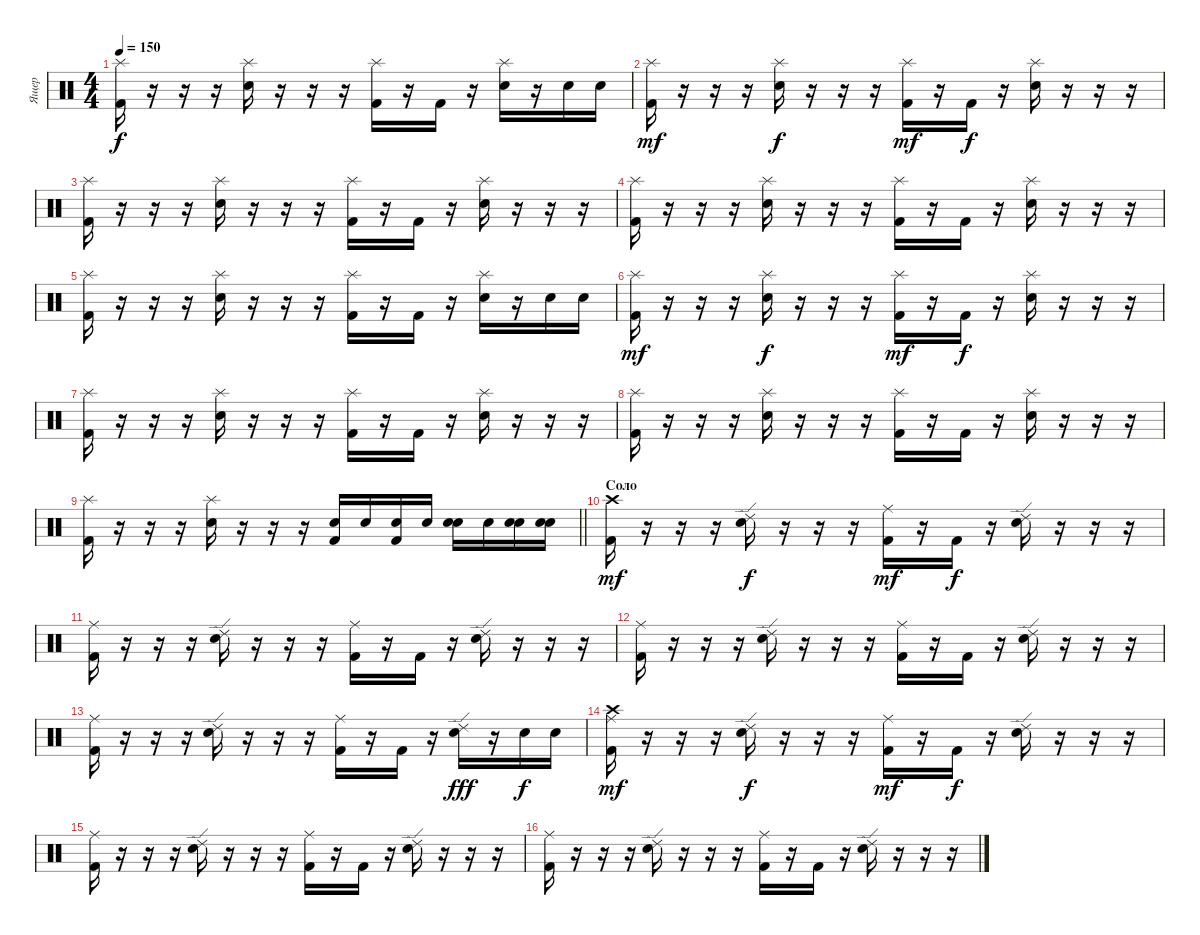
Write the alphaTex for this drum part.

\track ("Ящер" "Ящер") {instrument percussion}
\staff {score}
\articulation defaults
\ts (4 4)
\tempo 150
\clef neutral
\ks c
("Kick (hit) 2" "Splash (hit)").16{dy f} r.16 r.16 r.16 ("Snare (hit) 2" "Splash (hit)").16 r.16 r.16 r.16 ("Kick (hit) 2" "Splash (hit)").16 r.16 "Kick (hit) 2".16 r.16 ("Snare (hit) 2" "Splash (hit)").16 r.16 "Snare (hit) 2".16 "Snare (hit) 2".16 |
("Kick (hit) 2" "Splash (hit)").16{dy mf} r.16 r.16 r.16 ("Snare (hit) 2" "Splash (hit)").16{dy f} r.16 r.16 r.16 ("Kick (hit) 2" "Splash (hit)").16{dy mf} r.16 "Kick (hit) 2".16{dy f} r.16 ("Snare (hit) 2" "Splash (hit)").16 r.16 r.16 r.16 |
("Kick (hit) 2" "Splash (hit)").16 r.16 r.16 r.16 ("Snare (hit) 2" "Splash (hit)").16 r.16 r.16 r.16 ("Kick (hit) 2" "Splash (hit)").16 r.16 "Kick (hit) 2".16 r.16 ("Snare (hit) 2" "Splash (hit)").16 r.16 r.16 r.16 |
("Kick (hit) 2" "Splash (hit)").16 r.16 r.16 r.16 ("Snare (hit) 2" "Splash (hit)").16 r.16 r.16 r.16 ("Kick (hit) 2" "Splash (hit)").16 r.16 "Kick (hit) 2".16 r.16 ("Snare (hit) 2" "Splash (hit)").16 r.16 r.16 r.16 |
("Kick (hit) 2" "Splash (hit)").16 r.16 r.16 r.16 ("Snare (hit) 2" "Splash (hit)").16 r.16 r.16 r.16 ("Kick (hit) 2" "Splash (hit)").16 r.16 "Kick (hit) 2".16 r.16 ("Snare (hit) 2" "Splash (hit)").16 r.16 "Snare (hit) 2".16 "Snare (hit) 2".16 |
("Kick (hit) 2" "Splash (hit)").16{dy mf} r.16 r.16 r.16 ("Snare (hit) 2" "Splash (hit)").16{dy f} r.16 r.16 r.16 ("Kick (hit) 2" "Splash (hit)").16{dy mf} r.16 "Kick (hit) 2".16{dy f} r.16 ("Snare (hit) 2" "Splash (hit)").16 r.16 r.16 r.16 |
("Kick (hit) 2" "Splash (hit)").16 r.16 r.16 r.16 ("Snare (hit) 2" "Splash (hit)").16 r.16 r.16 r.16 ("Kick (hit) 2" "Splash (hit)").16 r.16 "Kick (hit) 2".16 r.16 ("Snare (hit) 2" "Splash (hit)").16 r.16 r.16 r.16 |
("Kick (hit) 2" "Splash (hit)").16 r.16 r.16 r.16 ("Snare (hit) 2" "Splash (hit)").16 r.16 r.16 r.16 ("Kick (hit) 2" "Splash (hit)").16 r.16 "Kick (hit) 2".16 r.16 ("Snare (hit) 2" "Splash (hit)").16 r.16 r.16 r.16 |
\barLineRight lightlight
("Kick (hit) 2" "Splash (hit)").16 r.16 r.16 r.16 ("Snare (hit) 2" "Splash (hit)").16 r.16 r.16 r.16 ("Kick (hit) 2" "Snare (hit) 2").16 "Snare (hit) 2".16 ("Kick (hit) 2" "Snare (hit) 2").16 "Snare (hit) 2".16 ("Snare (hit) 2" "Snare (hit) 2").16 "Snare (hit) 2".16 ("Snare (hit) 2" "Snare (hit) 2").16 ("Snare (hit) 2" "Snare (hit) 2").16 |
\section ("" "Соло")
("Kick (hit) 2" "Crash high (hit)").16{dy mf} r.16 r.16 r.16 ("Snare (hit) 2" "Ride (edge) 2").16{dy f} r.16 r.16 r.16 ("Kick (hit) 2" "Ride (middle)").16{dy mf} r.16 "Kick (hit) 2".16{dy f} r.16 ("Snare (hit) 2" "Ride (edge) 2").16 r.16 r.16 r.16 |
("Kick (hit) 2" "Ride (middle)").16 r.16 r.16 r.16 ("Snare (hit) 2" "Ride (edge) 2").16 r.16 r.16 r.16 ("Kick (hit) 2" "Ride (middle)").16 r.16 "Kick (hit) 2".16 r.16 ("Snare (hit) 2" "Ride (edge) 2").16 r.16 r.16 r.16 |
("Kick (hit) 2" "Ride (middle)").16 r.16 r.16 r.16 ("Snare (hit) 2" "Ride (edge) 2").16 r.16 r.16 r.16 ("Kick (hit) 2" "Ride (middle)").16 r.16 "Kick (hit) 2".16 r.16 ("Snare (hit) 2" "Ride (edge) 2").16 r.16 r.16 r.16 |
("Kick (hit) 2" "Ride (middle)").16 r.16 r.16 r.16 ("Snare (hit) 2" "Ride (edge) 2").16 r.16 r.16 r.16 ("Kick (hit) 2" "Ride (middle)").16 r.16 "Kick (hit) 2".16 r.16 ("Snare (hit) 2" "Ride (edge) 2").16{dy fff} r.16 "Snare (hit) 2".16{dy f} "Snare (hit) 2".16 |
("Kick (hit) 2" "Crash high (hit)" "Ride (middle)").16{dy mf} r.16 r.16 r.16 ("Snare (hit) 2" "Ride (edge) 2").16{dy f} r.16 r.16 r.16 ("Kick (hit) 2" "Ride (middle)").16{dy mf} r.16 "Kick (hit) 2".16{dy f} r.16 ("Snare (hit) 2" "Ride (edge) 2").16 r.16 r.16 r.16 |
("Kick (hit) 2" "Ride (middle)").16 r.16 r.16 r.16 ("Snare (hit) 2" "Ride (edge) 2").16 r.16 r.16 r.16 ("Kick (hit) 2" "Ride (middle)").16 r.16 "Kick (hit) 2".16 r.16 ("Snare (hit) 2" "Ride (edge) 2").16 r.16 r.16 r.16 |
("Kick (hit) 2" "Ride (middle)").16 r.16 r.16 r.16 ("Snare (hit) 2" "Ride (edge) 2").16 r.16 r.16 r.16 ("Kick (hit) 2" "Ride (middle)").16 r.16 "Kick (hit) 2".16 r.16 ("Snare (hit) 2" "Ride (edge) 2").16 r.16 r.16 r.16
